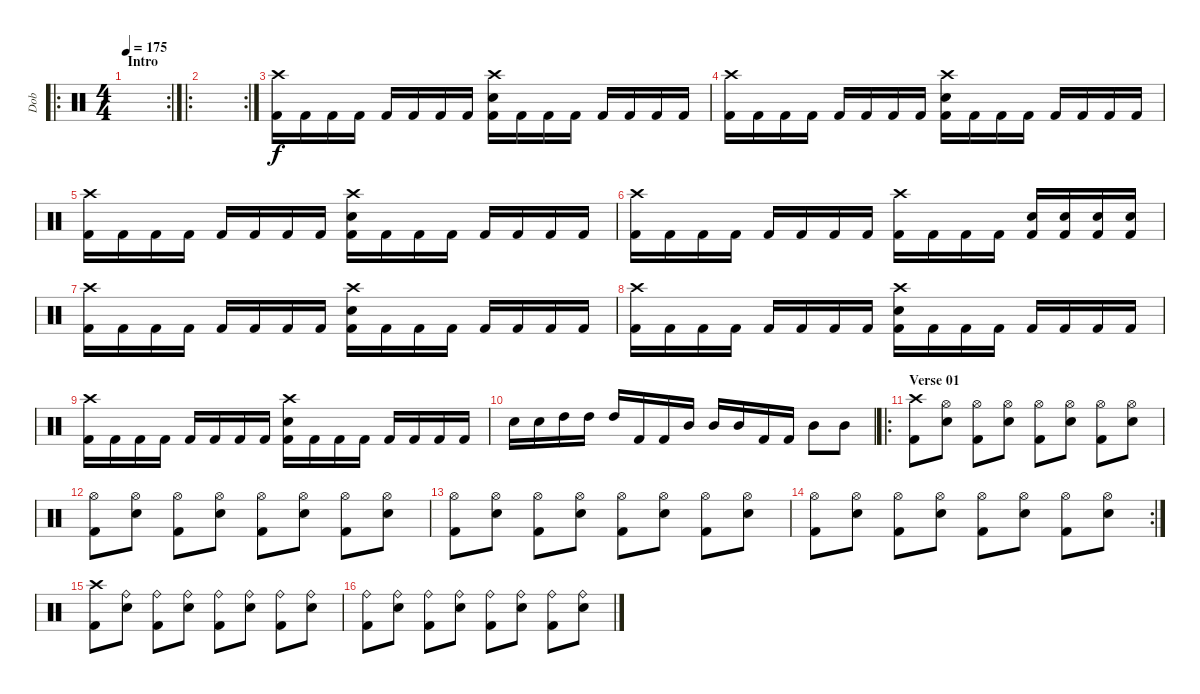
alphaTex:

\track ("Dob" "Dob") {instrument percussion}
\staff {score}
\articulation defaults
\ro
\rc 2
\ts (4 4)
\section ("" "Intro")
\tempo 175
\clef neutral
\ks c
|
\ro
\rc 2
|
("Crash high (hit)" "Kick (hit) 2").16 "Kick (hit) 2".16 "Kick (hit) 2".16 "Kick (hit) 2".16 "Kick (hit) 2".16 "Kick (hit) 2".16 "Kick (hit) 2".16 "Kick (hit) 2".16 ("Crash high (hit)" "Snare (hit) 2" "Kick (hit) 2").16 "Kick (hit) 2".16 "Kick (hit) 2".16 "Kick (hit) 2".16 "Kick (hit) 2".16 "Kick (hit) 2".16 "Kick (hit) 2".16 "Kick (hit) 2".16 |
("Crash high (hit)" "Kick (hit) 2").16 "Kick (hit) 2".16 "Kick (hit) 2".16 "Kick (hit) 2".16 "Kick (hit) 2".16 "Kick (hit) 2".16 "Kick (hit) 2".16 "Kick (hit) 2".16 ("Crash high (hit)" "Snare (hit) 2" "Kick (hit) 2").16 "Kick (hit) 2".16 "Kick (hit) 2".16 "Kick (hit) 2".16 "Kick (hit) 2".16 "Kick (hit) 2".16 "Kick (hit) 2".16 "Kick (hit) 2".16 |
("Crash high (hit)" "Kick (hit) 2").16 "Kick (hit) 2".16 "Kick (hit) 2".16 "Kick (hit) 2".16 "Kick (hit) 2".16 "Kick (hit) 2".16 "Kick (hit) 2".16 "Kick (hit) 2".16 ("Crash high (hit)" "Snare (hit) 2" "Kick (hit) 2").16 "Kick (hit) 2".16 "Kick (hit) 2".16 "Kick (hit) 2".16 "Kick (hit) 2".16 "Kick (hit) 2".16 "Kick (hit) 2".16 "Kick (hit) 2".16 |
("Crash high (hit)" "Kick (hit) 2").16 "Kick (hit) 2".16 "Kick (hit) 2".16 "Kick (hit) 2".16 "Kick (hit) 2".16 "Kick (hit) 2".16 "Kick (hit) 2".16 "Kick (hit) 2".16 ("Crash high (hit)" "Kick (hit) 2").16 "Kick (hit) 2".16 "Kick (hit) 2".16 "Kick (hit) 2".16 ("Snare (hit) 2" "Kick (hit) 2").16 ("Snare (hit) 2" "Kick (hit) 2").16 ("Snare (hit) 2" "Kick (hit) 2").16 ("Snare (hit) 2" "Kick (hit) 2").16 |
("Crash high (hit)" "Kick (hit) 2").16 "Kick (hit) 2".16 "Kick (hit) 2".16 "Kick (hit) 2".16 "Kick (hit) 2".16 "Kick (hit) 2".16 "Kick (hit) 2".16 "Kick (hit) 2".16 ("Crash high (hit)" "Snare (hit) 2" "Kick (hit) 2").16 "Kick (hit) 2".16 "Kick (hit) 2".16 "Kick (hit) 2".16 "Kick (hit) 2".16 "Kick (hit) 2".16 "Kick (hit) 2".16 "Kick (hit) 2".16 |
("Crash high (hit)" "Kick (hit) 2").16 "Kick (hit) 2".16 "Kick (hit) 2".16 "Kick (hit) 2".16 "Kick (hit) 2".16 "Kick (hit) 2".16 "Kick (hit) 2".16 "Kick (hit) 2".16 ("Crash high (hit)" "Snare (hit) 2" "Kick (hit) 2").16 "Kick (hit) 2".16 "Kick (hit) 2".16 "Kick (hit) 2".16 "Kick (hit) 2".16 "Kick (hit) 2".16 "Kick (hit) 2".16 "Kick (hit) 2".16 |
("Crash high (hit)" "Kick (hit) 2").16 "Kick (hit) 2".16 "Kick (hit) 2".16 "Kick (hit) 2".16 "Kick (hit) 2".16 "Kick (hit) 2".16 "Kick (hit) 2".16 "Kick (hit) 2".16 ("Crash high (hit)" "Snare (hit) 2" "Kick (hit) 2").16 "Kick (hit) 2".16 "Kick (hit) 2".16 "Kick (hit) 2".16 "Kick (hit) 2".16 "Kick (hit) 2".16 "Kick (hit) 2".16 "Kick (hit) 2".16 |
"Snare (hit) 2".16 "Snare (hit) 2".16 "High Tom (hit)".16 "High Tom (hit)".16 "High Tom (hit)".16 "Kick (hit) 2".16 "Kick (hit) 2".16 "Mid Tom (hit)".16 "Mid Tom (hit)".16 "Mid Tom (hit)".16 "Kick (hit) 2".16 "Kick (hit) 2".16 "Mid Tom (hit)".8 "Mid Tom (hit)".8 |
\ro
\section ("" "Verse 01")
("Crash high (hit)" "Kick (hit) 2").8 ("Hi-Hat (open)" "Snare (hit) 2").8 ("Hi-Hat (open)" "Kick (hit) 2").8 ("Hi-Hat (open)" "Snare (hit) 2").8 ("Hi-Hat (open)" "Kick (hit) 2").8 ("Hi-Hat (open)" "Snare (hit) 2").8 ("Hi-Hat (open)" "Kick (hit) 2").8 ("Hi-Hat (open)" "Snare (hit) 2").8 |
("Hi-Hat (open)" "Kick (hit) 2").8 ("Hi-Hat (open)" "Snare (hit) 2").8 ("Hi-Hat (open)" "Kick (hit) 2").8 ("Hi-Hat (open)" "Snare (hit) 2").8 ("Hi-Hat (open)" "Kick (hit) 2").8 ("Hi-Hat (open)" "Snare (hit) 2").8 ("Hi-Hat (open)" "Kick (hit) 2").8 ("Hi-Hat (open)" "Snare (hit) 2").8 |
("Hi-Hat (open)" "Kick (hit) 2").8 ("Hi-Hat (open)" "Snare (hit) 2").8 ("Hi-Hat (open)" "Kick (hit) 2").8 ("Hi-Hat (open)" "Snare (hit) 2").8 ("Hi-Hat (open)" "Kick (hit) 2").8 ("Hi-Hat (open)" "Snare (hit) 2").8 ("Hi-Hat (open)" "Kick (hit) 2").8 ("Hi-Hat (open)" "Snare (hit) 2").8 |
\rc 2
("Hi-Hat (open)" "Kick (hit) 2").8 ("Hi-Hat (open)" "Snare (hit) 2").8 ("Hi-Hat (open)" "Kick (hit) 2").8 ("Hi-Hat (open)" "Snare (hit) 2").8 ("Hi-Hat (open)" "Kick (hit) 2").8 ("Hi-Hat (open)" "Snare (hit) 2").8 ("Hi-Hat (open)" "Kick (hit) 2").8 ("Hi-Hat (open)" "Snare (hit) 2").8 |
("Crash high (hit)" "Kick (hit) 2").8 ("Ride (bell)" "Snare (hit) 2").8 ("Ride (bell)" "Kick (hit) 2").8 ("Ride (bell)" "Snare (hit) 2").8 ("Ride (bell)" "Kick (hit) 2").8 ("Ride (bell)" "Snare (hit) 2").8 ("Ride (bell)" "Kick (hit) 2").8 ("Ride (bell)" "Snare (hit) 2").8 |
("Ride (bell)" "Kick (hit) 2").8 ("Ride (bell)" "Snare (hit) 2").8 ("Ride (bell)" "Kick (hit) 2").8 ("Ride (bell)" "Snare (hit) 2").8 ("Ride (bell)" "Kick (hit) 2").8 ("Ride (bell)" "Snare (hit) 2").8 ("Ride (bell)" "Kick (hit) 2").8 ("Ride (bell)" "Snare (hit) 2").8
